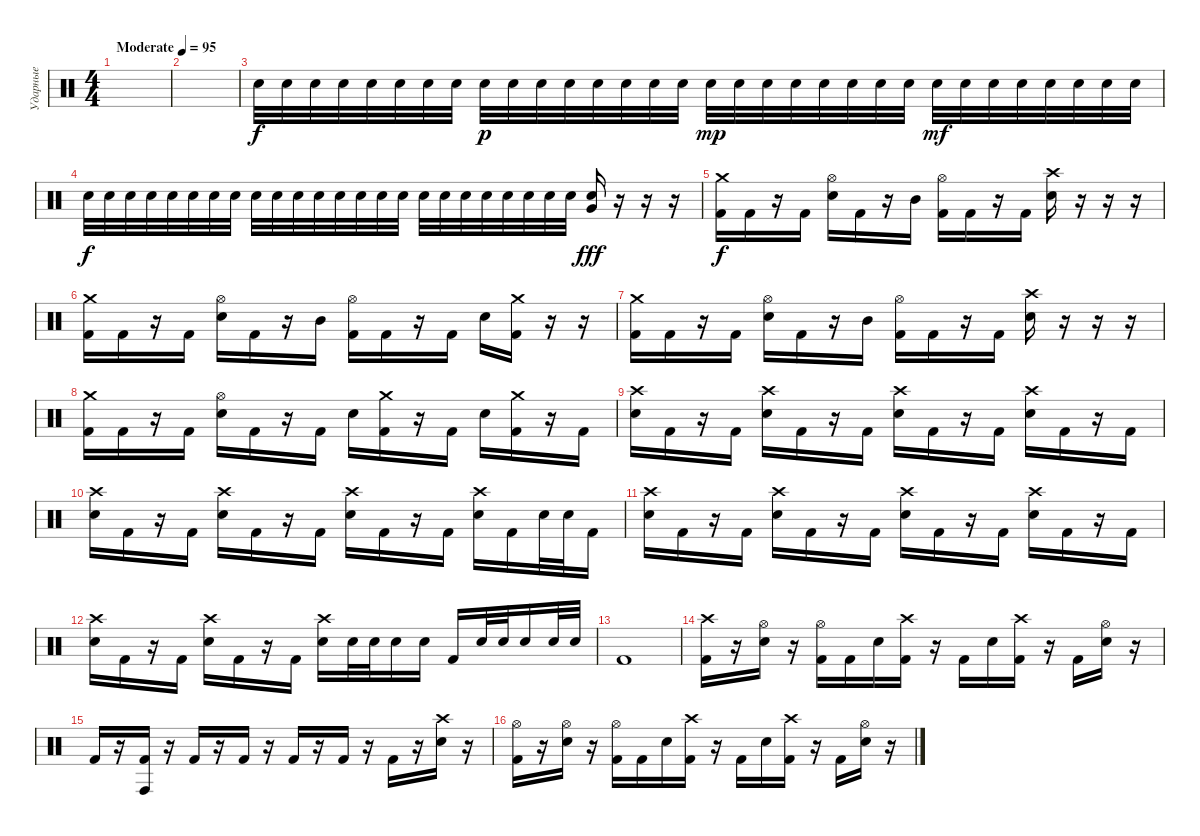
\track ("Ударные" "Ударные") {instrument percussion}
\staff {score}
\articulation defaults
\ts (4 4)
\tempo (95 "Moderate")
\clef neutral
\ks c
|
|
"Electric Snare (hit)".32 "Electric Snare (hit)".32 "Electric Snare (hit)".32 "Electric Snare (hit)".32 "Electric Snare (hit)".32 "Electric Snare (hit)".32 "Electric Snare (hit)".32 "Electric Snare (hit)".32 "Electric Snare (hit)".32{dy p} "Electric Snare (hit)".32 "Electric Snare (hit)".32 "Electric Snare (hit)".32 "Electric Snare (hit)".32 "Electric Snare (hit)".32 "Electric Snare (hit)".32 "Electric Snare (hit)".32 "Electric Snare (hit)".32{dy mp} "Electric Snare (hit)".32 "Electric Snare (hit)".32 "Electric Snare (hit)".32 "Electric Snare (hit)".32 "Electric Snare (hit)".32 "Electric Snare (hit)".32 "Electric Snare (hit)".32 "Electric Snare (hit)".32{dy mf} "Electric Snare (hit)".32 "Electric Snare (hit)".32 "Electric Snare (hit)".32 "Electric Snare (hit)".32 "Electric Snare (hit)".32 "Electric Snare (hit)".32 "Electric Snare (hit)".32 |
"Electric Snare (hit)".32{dy f} "Electric Snare (hit)".32 "Electric Snare (hit)".32 "Electric Snare (hit)".32 "Electric Snare (hit)".32 "Electric Snare (hit)".32 "Electric Snare (hit)".32 "Electric Snare (hit)".32 "Electric Snare (hit)".32 "Electric Snare (hit)".32 "Electric Snare (hit)".32 "Electric Snare (hit)".32 "Electric Snare (hit)".32 "Electric Snare (hit)".32 "Electric Snare (hit)".32 "Electric Snare (hit)".32 "Electric Snare (hit)".32 "Electric Snare (hit)".32 "Electric Snare (hit)".32 "Electric Snare (hit)".32 "Electric Snare (hit)".32 "Electric Snare (hit)".32 "Electric Snare (hit)".32 "Electric Snare (hit)".32 ("Very Low Tom (hit)" "Electric Snare (hit)").16{dy fff} r.16 r.16 r.16 |
("Crash medium (hit)" "Kick (hit) 2").16{dy f} "Kick (hit) 2".16 r.16 "Kick (hit) 2".16 ("Hi-Hat (open)" "Electric Snare (hit)").16 "Kick (hit) 2".16 r.16 "Mid Tom (hit)".16 ("Hi-Hat (open)" "Kick (hit) 2").16 "Kick (hit) 2".16 r.16 "Kick (hit) 2".16 ("Crash high (hit)" "Electric Snare (hit)").16 r.16 r.16 r.16 |
("Crash medium (hit)" "Kick (hit) 2").16 "Kick (hit) 2".16 r.16 "Kick (hit) 2".16 ("Hi-Hat (open)" "Electric Snare (hit)").16 "Kick (hit) 2".16 r.16 "Mid Tom (hit)".16 ("Hi-Hat (open)" "Kick (hit) 2").16 "Kick (hit) 2".16 r.16 "Kick (hit) 2".16 "Electric Snare (hit)".16 ("Crash medium (hit)" "Kick (hit) 2").16 r.16 r.16 |
("Crash medium (hit)" "Kick (hit) 2").16 "Kick (hit) 2".16 r.16 "Kick (hit) 2".16 ("Hi-Hat (open)" "Electric Snare (hit)").16 "Kick (hit) 2".16 r.16 "Mid Tom (hit)".16 ("Hi-Hat (open)" "Kick (hit) 2").16 "Kick (hit) 2".16 r.16 "Kick (hit) 2".16 ("Crash high (hit)" "Electric Snare (hit)").16 r.16 r.16 r.16 |
("Crash medium (hit)" "Kick (hit) 2").16 "Kick (hit) 2".16 r.16 "Kick (hit) 2".16 ("Hi-Hat (open)" "Electric Snare (hit)").16 "Kick (hit) 2".16 r.16 "Kick (hit) 2".16 "Electric Snare (hit)".16 ("Crash medium (hit)" "Kick (hit) 2").16 r.16 "Kick (hit) 2".16 "Electric Snare (hit)".16 ("Crash medium (hit)" "Kick (hit) 2").16 r.16 "Kick (hit) 2".16 |
("Crash high (hit)" "Electric Snare (hit)").16 "Kick (hit) 2".16 r.16 "Kick (hit) 2".16 ("Crash high (hit)" "Electric Snare (hit)").16 "Kick (hit) 2".16 r.16 "Kick (hit) 2".16 ("Crash high (hit)" "Electric Snare (hit)").16 "Kick (hit) 2".16 r.16 "Kick (hit) 2".16 ("Crash high (hit)" "Electric Snare (hit)").16 "Kick (hit) 2".16 r.16 "Kick (hit) 2".16 |
("Crash high (hit)" "Electric Snare (hit)").16 "Kick (hit) 2".16 r.16 "Kick (hit) 2".16 ("Crash high (hit)" "Electric Snare (hit)").16 "Kick (hit) 2".16 r.16 "Kick (hit) 2".16 ("Crash high (hit)" "Electric Snare (hit)").16 "Kick (hit) 2".16 r.16 "Kick (hit) 2".16 ("Crash high (hit)" "Electric Snare (hit)").16 "Kick (hit) 2".16 "Electric Snare (hit)".32 "Electric Snare (hit)".32 "Kick (hit) 2".16 |
("Crash high (hit)" "Electric Snare (hit)").16 "Kick (hit) 2".16 r.16 "Kick (hit) 2".16 ("Crash high (hit)" "Electric Snare (hit)").16 "Kick (hit) 2".16 r.16 "Kick (hit) 2".16 ("Crash high (hit)" "Electric Snare (hit)").16 "Kick (hit) 2".16 r.16 "Kick (hit) 2".16 ("Crash high (hit)" "Electric Snare (hit)").16 "Kick (hit) 2".16 r.16 "Kick (hit) 2".16 |
("Crash high (hit)" "Electric Snare (hit)").16 "Kick (hit) 2".16 r.16 "Kick (hit) 2".16 ("Crash high (hit)" "Electric Snare (hit)").16 "Kick (hit) 2".16 r.16 "Kick (hit) 2".16 ("Crash high (hit)" "Electric Snare (hit)").16 "Electric Snare (hit)".32 "Electric Snare (hit)".32 "Electric Snare (hit)".16 "Electric Snare (hit)".16 "Kick (hit) 2".16 "Electric Snare (hit)".32 "Electric Snare (hit)".32 "Electric Snare (hit)".16 "Electric Snare (hit)".32 "Electric Snare (hit)".32 |
"Kick (hit) 2".1 |
("Crash high (hit)" "Kick (hit) 2").16 r.16 ("Hi-Hat (open)" "Electric Snare (hit)").16 r.16 ("Hi-Hat (open)" "Kick (hit) 2").16 "Kick (hit) 2".16 "Electric Snare (hit)".16 ("Crash high (hit)" "Kick (hit) 2").16 r.16 "Kick (hit) 2".16 "Electric Snare (hit)".16 ("Crash high (hit)" "Kick (hit) 2").16 r.16 "Kick (hit) 2".16 ("Hi-Hat (open)" "Electric Snare (hit)").16 r.16 |
"Kick (hit) 2".16 r.16 ("Conga high (hit)" "Kick (hit) 2").16 r.16 "Kick (hit) 2".16 r.16 "Kick (hit) 2".16 r.16 "Kick (hit) 2".16 r.16 "Kick (hit) 2".16 r.16 "Kick (hit) 2".16 r.16 ("Crash high (hit)" "Electric Snare (hit)").16 r.16 |
("Hi-Hat (open)" "Kick (hit) 2").16 r.16 ("Hi-Hat (open)" "Electric Snare (hit)").16 r.16 ("Hi-Hat (open)" "Kick (hit) 2").16 "Kick (hit) 2".16 "Electric Snare (hit)".16 ("Crash high (hit)" "Kick (hit) 2").16 r.16 "Kick (hit) 2".16 "Electric Snare (hit)".16 ("Crash high (hit)" "Kick (hit) 2").16 r.16 "Kick (hit) 2".16 ("Hi-Hat (open)" "Electric Snare (hit)").16 r.16
